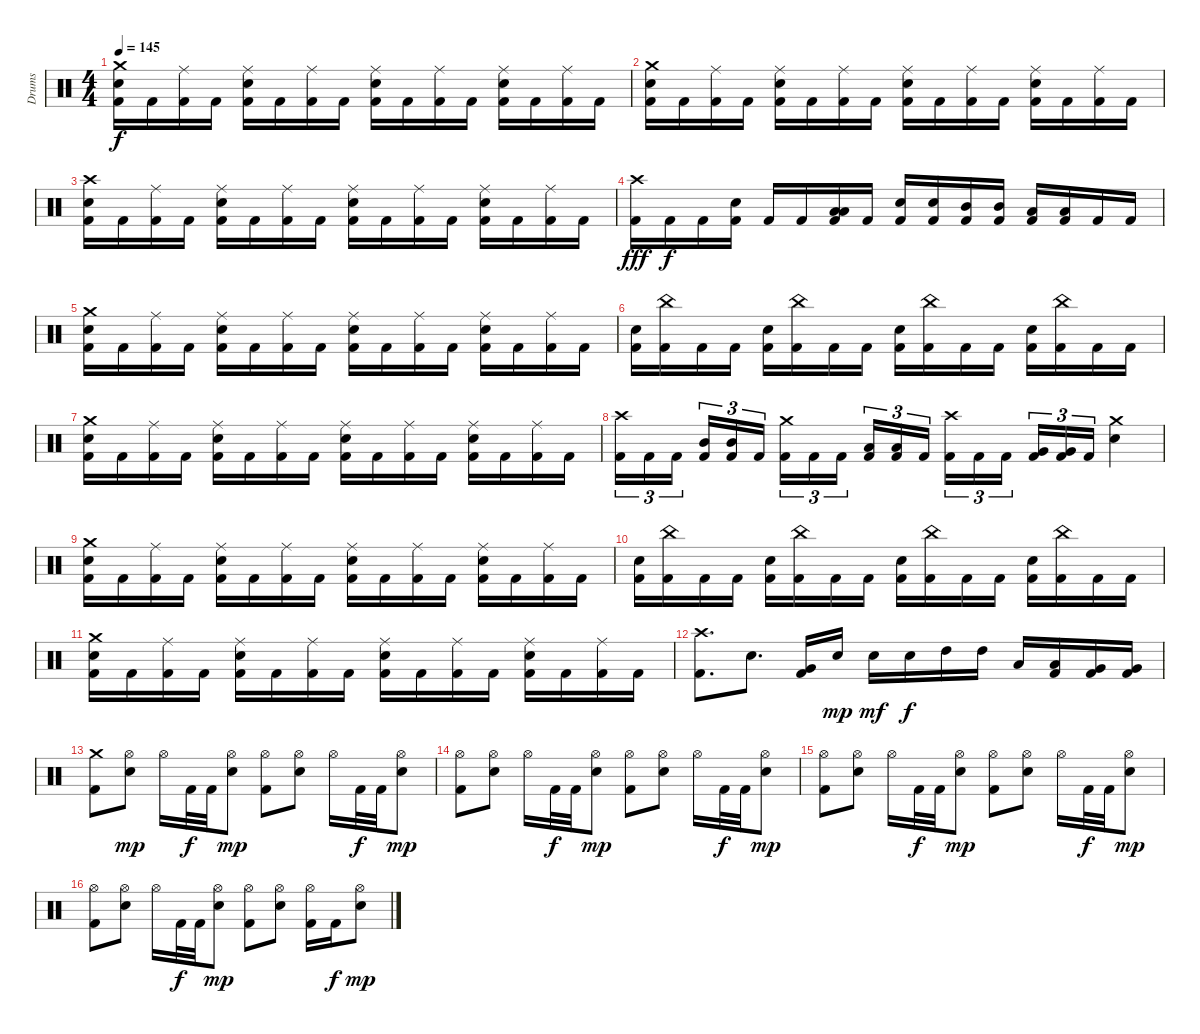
\track ("Drums" "Drums") {instrument percussion}
\staff {score}
\articulation defaults
\ts (4 4)
\tempo 145
\clef neutral
\ks c
("Crash medium (hit)" "Kick (hit) 2" "Electric Snare (hit)").16{dy f} "Kick (hit) 2".16 ("Ride (middle)" "Kick (hit) 2").16 "Kick (hit) 2".16 ("Ride (middle)" "Kick (hit) 2" "Electric Snare (hit)").16 "Kick (hit) 2".16 ("Ride (middle)" "Kick (hit) 2").16 "Kick (hit) 2".16 ("Ride (middle)" "Kick (hit) 2" "Electric Snare (hit)").16 "Kick (hit) 2".16 ("Ride (middle)" "Kick (hit) 2").16 "Kick (hit) 2".16 ("Ride (middle)" "Kick (hit) 2" "Electric Snare (hit)").16 "Kick (hit) 2".16 ("Ride (middle)" "Kick (hit) 2").16 "Kick (hit) 2".16 |
("Crash medium (hit)" "Kick (hit) 2" "Electric Snare (hit)").16 "Kick (hit) 2".16 ("Ride (middle)" "Kick (hit) 2").16 "Kick (hit) 2".16 ("Ride (middle)" "Kick (hit) 2" "Electric Snare (hit)").16 "Kick (hit) 2".16 ("Ride (middle)" "Kick (hit) 2").16 "Kick (hit) 2".16 ("Ride (middle)" "Kick (hit) 2" "Electric Snare (hit)").16 "Kick (hit) 2".16 ("Ride (middle)" "Kick (hit) 2").16 "Kick (hit) 2".16 ("Ride (middle)" "Kick (hit) 2" "Electric Snare (hit)").16 "Kick (hit) 2".16 ("Ride (middle)" "Kick (hit) 2").16 "Kick (hit) 2".16 |
("Crash high (hit)" "Kick (hit) 2" "Electric Snare (hit)").16 "Kick (hit) 2".16 ("Ride (middle)" "Kick (hit) 2").16 "Kick (hit) 2".16 ("Ride (middle)" "Kick (hit) 2" "Electric Snare (hit)").16 "Kick (hit) 2".16 ("Ride (middle)" "Kick (hit) 2").16 "Kick (hit) 2".16 ("Ride (middle)" "Kick (hit) 2" "Electric Snare (hit)").16 "Kick (hit) 2".16 ("Ride (middle)" "Kick (hit) 2").16 "Kick (hit) 2".16 ("Ride (middle)" "Kick (hit) 2" "Electric Snare (hit)").16 "Kick (hit) 2".16 ("Ride (middle)" "Kick (hit) 2").16 "Kick (hit) 2".16 |
("Crash high (hit)" "Kick (hit) 2").16{dy fff} "Kick (hit) 2".16{dy f} "Kick (hit) 2".16 ("Kick (hit) 2" "Electric Snare (hit)").16 "Kick (hit) 2".16 "Kick (hit) 2".16 ("Low Tom (hit)" "Kick (hit) 2" "Low Tom (hit)").16 "Kick (hit) 2".16 ("Kick (hit) 2" "Electric Snare (hit)").16 ("Kick (hit) 2" "Electric Snare (hit)").16 ("Mid Tom (hit)" "Kick (hit) 2").16 ("Mid Tom (hit)" "Kick (hit) 2").16 ("Low Tom (hit)" "Kick (hit) 2").16 ("Low Tom (hit)" "Kick (hit) 2").16 "Kick (hit) 2".16 "Kick (hit) 2".16 |
("Crash medium (hit)" "Kick (hit) 2" "Electric Snare (hit)").16 "Kick (hit) 2".16 ("Ride (middle)" "Kick (hit) 2").16 "Kick (hit) 2".16 ("Ride (middle)" "Kick (hit) 2" "Electric Snare (hit)").16 "Kick (hit) 2".16 ("Ride (middle)" "Kick (hit) 2").16 "Kick (hit) 2".16 ("Ride (middle)" "Kick (hit) 2" "Electric Snare (hit)").16 "Kick (hit) 2".16 ("Ride (middle)" "Kick (hit) 2").16 "Kick (hit) 2".16 ("Ride (middle)" "Kick (hit) 2" "Electric Snare (hit)").16 "Kick (hit) 2".16 ("Ride (middle)" "Kick (hit) 2").16 "Kick (hit) 2".16 |
("Kick (hit) 2" "Electric Snare (hit)").16 ("China (hit)" "Kick (hit) 2").16 "Kick (hit) 2".16 "Kick (hit) 2".16 ("Kick (hit) 2" "Electric Snare (hit)").16 ("China (hit)" "Kick (hit) 2").16 "Kick (hit) 2".16 "Kick (hit) 2".16 ("Kick (hit) 2" "Electric Snare (hit)").16 ("China (hit)" "Kick (hit) 2").16 "Kick (hit) 2".16 "Kick (hit) 2".16 ("Kick (hit) 2" "Electric Snare (hit)").16 ("China (hit)" "Kick (hit) 2").16 "Kick (hit) 2".16 "Kick (hit) 2".16 |
("Crash medium (hit)" "Kick (hit) 2" "Electric Snare (hit)").16 "Kick (hit) 2".16 ("Ride (middle)" "Kick (hit) 2").16 "Kick (hit) 2".16 ("Ride (middle)" "Kick (hit) 2" "Electric Snare (hit)").16 "Kick (hit) 2".16 ("Ride (middle)" "Kick (hit) 2").16 "Kick (hit) 2".16 ("Ride (middle)" "Kick (hit) 2" "Electric Snare (hit)").16 "Kick (hit) 2".16 ("Ride (middle)" "Kick (hit) 2").16 "Kick (hit) 2".16 ("Ride (middle)" "Kick (hit) 2" "Electric Snare (hit)").16 "Kick (hit) 2".16 ("Ride (middle)" "Kick (hit) 2").16 "Kick (hit) 2".16 |
("Crash high (hit)" "Kick (hit) 2").16{tu (3 2)} "Kick (hit) 2".16{tu (3 2)} "Kick (hit) 2".16{tu (3 2) beam splitsecondary} ("Mid Tom (hit)" "Kick (hit) 2").16{tu (3 2)} ("Mid Tom (hit)" "Kick (hit) 2").16{tu (3 2)} "Kick (hit) 2".16{tu (3 2)} ("Crash medium (hit)" "Kick (hit) 2").16{tu (3 2)} "Kick (hit) 2".16{tu (3 2)} "Kick (hit) 2".16{tu (3 2) beam splitsecondary} ("Low Tom (hit)" "Kick (hit) 2").16{tu (3 2)} ("Low Tom (hit)" "Kick (hit) 2").16{tu (3 2)} "Kick (hit) 2".16{tu (3 2)} ("Crash high (hit)" "Kick (hit) 2").16{tu (3 2)} "Kick (hit) 2".16{tu (3 2)} "Kick (hit) 2".16{tu (3 2) beam splitsecondary} ("Very Low Tom (hit)" "Kick (hit) 2").16{tu (3 2)} ("Very Low Tom (hit)" "Kick (hit) 2").16{tu (3 2)} "Kick (hit) 2".16{tu (3 2)} ("Crash medium (hit)" "Electric Snare (hit)").4 |
("Crash medium (hit)" "Kick (hit) 2" "Electric Snare (hit)").16 "Kick (hit) 2".16 ("Ride (middle)" "Kick (hit) 2").16 "Kick (hit) 2".16 ("Ride (middle)" "Kick (hit) 2" "Electric Snare (hit)").16 "Kick (hit) 2".16 ("Ride (middle)" "Kick (hit) 2").16 "Kick (hit) 2".16 ("Ride (middle)" "Kick (hit) 2" "Electric Snare (hit)").16 "Kick (hit) 2".16 ("Ride (middle)" "Kick (hit) 2").16 "Kick (hit) 2".16 ("Ride (middle)" "Kick (hit) 2" "Electric Snare (hit)").16 "Kick (hit) 2".16 ("Ride (middle)" "Kick (hit) 2").16 "Kick (hit) 2".16 |
("Kick (hit) 2" "Electric Snare (hit)").16 ("China (hit)" "Kick (hit) 2").16 "Kick (hit) 2".16 "Kick (hit) 2".16 ("Kick (hit) 2" "Electric Snare (hit)").16 ("China (hit)" "Kick (hit) 2").16 "Kick (hit) 2".16 "Kick (hit) 2".16 ("Kick (hit) 2" "Electric Snare (hit)").16 ("China (hit)" "Kick (hit) 2").16 "Kick (hit) 2".16 "Kick (hit) 2".16 ("Kick (hit) 2" "Electric Snare (hit)").16 ("China (hit)" "Kick (hit) 2").16 "Kick (hit) 2".16 "Kick (hit) 2".16 |
("Crash medium (hit)" "Kick (hit) 2" "Electric Snare (hit)").16 "Kick (hit) 2".16 ("Ride (middle)" "Kick (hit) 2").16 "Kick (hit) 2".16 ("Ride (middle)" "Kick (hit) 2" "Electric Snare (hit)").16 "Kick (hit) 2".16 ("Ride (middle)" "Kick (hit) 2").16 "Kick (hit) 2".16 ("Ride (middle)" "Kick (hit) 2" "Electric Snare (hit)").16 "Kick (hit) 2".16 ("Ride (middle)" "Kick (hit) 2").16 "Kick (hit) 2".16 ("Ride (middle)" "Kick (hit) 2" "Electric Snare (hit)").16 "Kick (hit) 2".16 ("Ride (middle)" "Kick (hit) 2").16 "Kick (hit) 2".16 |
("Crash high (hit)" "Kick (hit) 2").8{d} "Electric Snare (hit)".8{d} ("Very Low Tom (hit)" "Kick (hit) 2").16 "Electric Snare (hit)".16{dy mp} "Electric Snare (hit)".16{dy mf} "Electric Snare (hit)".16{dy f} "High Tom (hit)".16 "High Tom (hit)".16 "Low Tom (hit)".16 ("Low Tom (hit)" "Kick (hit) 2").16 ("Very Low Tom (hit)" "Kick (hit) 2").16 ("Very Low Tom (hit)" "Kick (hit) 2").16 |
("Crash medium (hit)" "Kick (hit) 2").8 ("Hi-Hat (open)" "Electric Snare (hit)").8{dy mp} "Hi-Hat (open)".16 "Kick (hit) 2".32{dy f} "Kick (hit) 2".32 ("Hi-Hat (open)" "Electric Snare (hit)").8{dy mp} ("Hi-Hat (open)" "Kick (hit) 2").8 ("Hi-Hat (open)" "Electric Snare (hit)").8 "Hi-Hat (open)".16 "Kick (hit) 2".32{dy f} "Kick (hit) 2".32 ("Hi-Hat (open)" "Electric Snare (hit)").8{dy mp} |
("Hi-Hat (open)" "Kick (hit) 2").8 ("Hi-Hat (open)" "Electric Snare (hit)").8 "Hi-Hat (open)".16 "Kick (hit) 2".32{dy f} "Kick (hit) 2".32 ("Hi-Hat (open)" "Electric Snare (hit)").8{dy mp} ("Hi-Hat (open)" "Kick (hit) 2").8 ("Hi-Hat (open)" "Electric Snare (hit)").8 "Hi-Hat (open)".16 "Kick (hit) 2".32{dy f} "Kick (hit) 2".32 ("Hi-Hat (open)" "Electric Snare (hit)").8{dy mp} |
("Hi-Hat (open)" "Kick (hit) 2").8 ("Hi-Hat (open)" "Electric Snare (hit)").8 "Hi-Hat (open)".16 "Kick (hit) 2".32{dy f} "Kick (hit) 2".32 ("Hi-Hat (open)" "Electric Snare (hit)").8{dy mp} ("Hi-Hat (open)" "Kick (hit) 2").8 ("Hi-Hat (open)" "Electric Snare (hit)").8 "Hi-Hat (open)".16 "Kick (hit) 2".32{dy f} "Kick (hit) 2".32 ("Hi-Hat (open)" "Electric Snare (hit)").8{dy mp} |
("Hi-Hat (open)" "Kick (hit) 2").8 ("Hi-Hat (open)" "Electric Snare (hit)").8 "Hi-Hat (open)".16 "Kick (hit) 2".32{dy f} "Kick (hit) 2".32 ("Hi-Hat (open)" "Electric Snare (hit)").8{dy mp} ("Hi-Hat (open)" "Kick (hit) 2").8 ("Hi-Hat (open)" "Electric Snare (hit)").8 ("Hi-Hat (open)" "Kick (hit) 2").16 "Kick (hit) 2".16{dy f} ("Hi-Hat (open)" "Electric Snare (hit)").8{dy mp}
